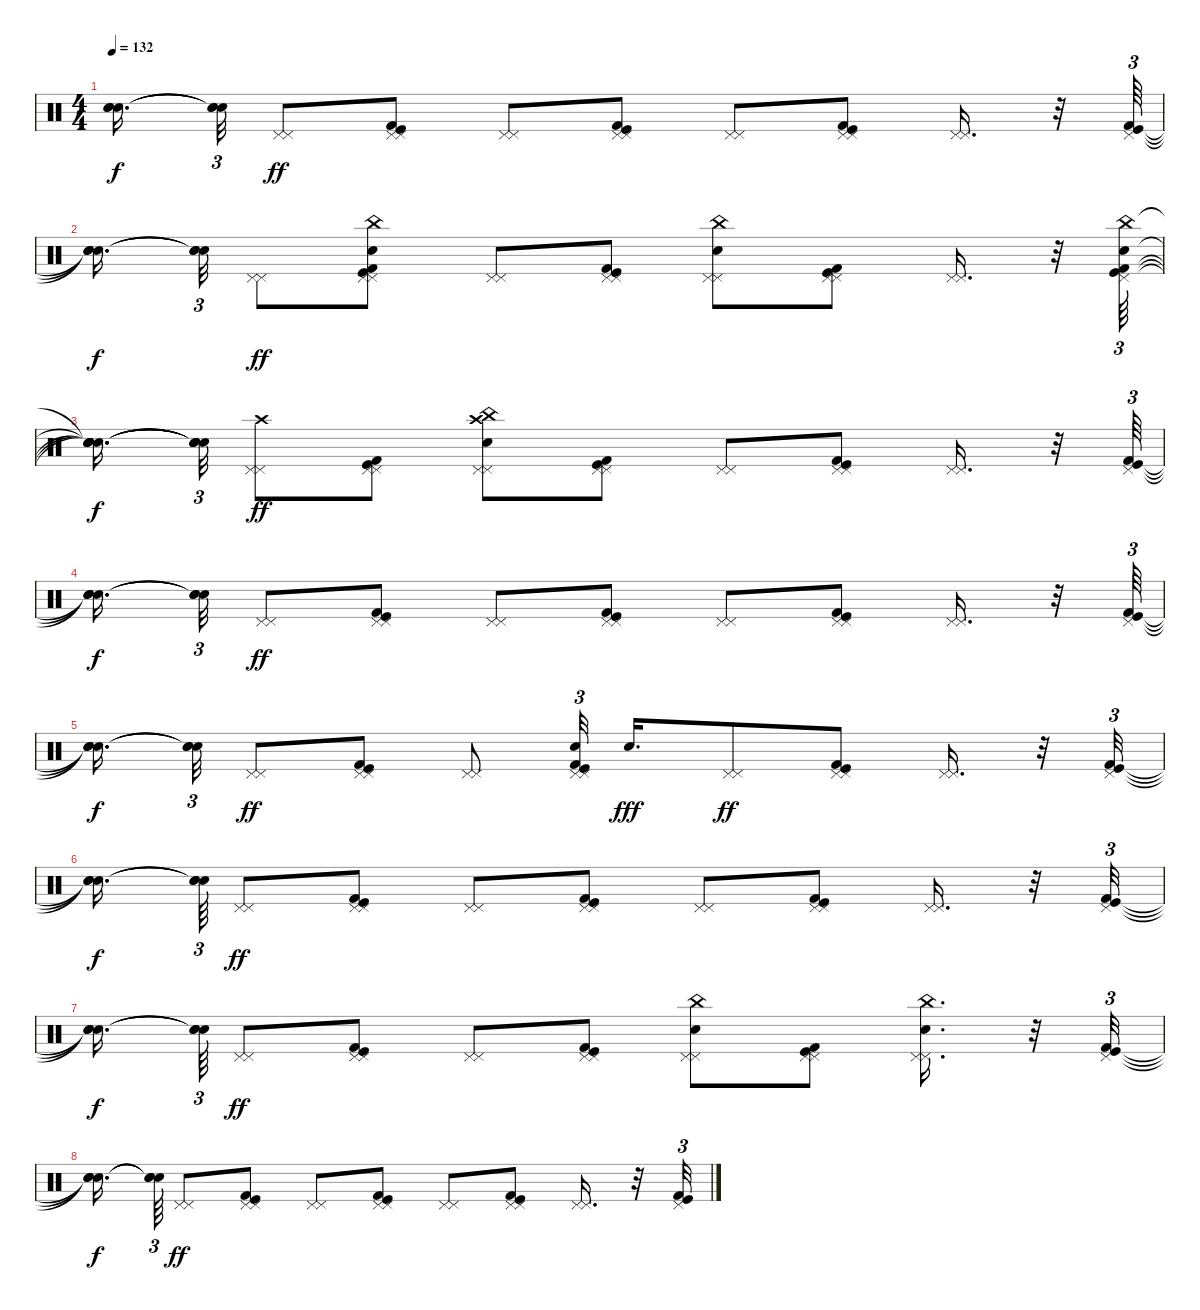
\track "" {instrument percussion}
\staff {score}
\articulation defaults
\ts (4 4)
\tempo 132
\clef neutral
\ks c
("Snare (hit)"{t} "Snare (hit)"{t} "Snare (hit)"{t}).16{d dy f beam splitsecondary} ("Snare (hit)"{t} "Snare (hit)"{t} "Snare (hit)"{t}).32{tu (3 2)} ("Pedal Hi-Hat (hit)" "Pedal Hi-Hat (hit)").8{dy ff} ("Kick (hit)" "Kick (hit) 2" "Pedal Hi-Hat (hit)" "Pedal Hi-Hat (hit)").8 ("Pedal Hi-Hat (hit)" "Pedal Hi-Hat (hit)").8 ("Kick (hit) 2" "Kick (hit)" "Pedal Hi-Hat (hit)" "Pedal Hi-Hat (hit)").8 ("Pedal Hi-Hat (hit)" "Pedal Hi-Hat (hit)").8 ("Kick (hit)" "Kick (hit) 2" "Pedal Hi-Hat (hit)" "Pedal Hi-Hat (hit)").8 ("Pedal Hi-Hat (hit)" "Pedal Hi-Hat (hit)").16{d} r.32 ("Kick (hit) 2" "Kick (hit)" "Pedal Hi-Hat (hit)").64{tu (3 2)} |
("Snare (hit)"{t} "Snare (hit)"{t} "Snare (hit)"{t}).16{d dy f beam splitsecondary} ("Snare (hit)"{t} "Snare (hit)"{t} "Snare (hit)"{t}).32{tu (3 2)} ("Pedal Hi-Hat (hit)" "Pedal Hi-Hat (hit)").8{dy ff} ("Kick (hit)" "Kick (hit) 2" "China (choke)" "Snare (hit)" "Pedal Hi-Hat (hit)" "Pedal Hi-Hat (hit)").8 ("Pedal Hi-Hat (hit)" "Pedal Hi-Hat (hit)").8 ("Kick (hit) 2" "Kick (hit)" "Pedal Hi-Hat (hit)" "Pedal Hi-Hat (hit)").8 ("China (choke)" "Snare (hit)" "Pedal Hi-Hat (hit)" "Pedal Hi-Hat (hit)").8 ("Kick (hit)" "Kick (hit) 2" "Pedal Hi-Hat (hit)" "Pedal Hi-Hat (hit)").8 ("Pedal Hi-Hat (hit)" "Pedal Hi-Hat (hit)").16{d} r.32 ("Kick (hit) 2" "Kick (hit)" "China (choke)" "Snare (hit)" "Pedal Hi-Hat (hit)").64{tu (3 2)} |
("Snare (hit)"{t} "Snare (hit)"{t} "Snare (hit)"{t} "Snare (hit)"{t} "Snare (hit)"{t}).16{d dy f beam splitsecondary} ("Snare (hit)"{t} "Snare (hit)"{t} "Snare (hit)"{t} "Snare (hit)"{t} "Snare (hit)"{t}).32{tu (3 2)} ("Crash high (hit)" "Pedal Hi-Hat (hit)" "Pedal Hi-Hat (hit)").8{dy ff} ("Kick (hit)" "Kick (hit) 2" "Pedal Hi-Hat (hit)" "Pedal Hi-Hat (hit)").8 ("Crash high (hit)" "China (choke)" "Snare (hit)" "Pedal Hi-Hat (hit)" "Pedal Hi-Hat (hit)").8 ("Kick (hit) 2" "Kick (hit)" "Pedal Hi-Hat (hit)" "Pedal Hi-Hat (hit)").8 ("Pedal Hi-Hat (hit)" "Pedal Hi-Hat (hit)").8 ("Kick (hit)" "Kick (hit) 2" "Pedal Hi-Hat (hit)" "Pedal Hi-Hat (hit)").8 ("Pedal Hi-Hat (hit)" "Pedal Hi-Hat (hit)").16{d} r.32 ("Kick (hit) 2" "Kick (hit)" "Pedal Hi-Hat (hit)").64{tu (3 2)} |
("Snare (hit)"{t} "Snare (hit)"{t} "Snare (hit)"{t}).16{d dy f beam splitsecondary} ("Snare (hit)"{t} "Snare (hit)"{t} "Snare (hit)"{t}).32{tu (3 2)} ("Pedal Hi-Hat (hit)" "Pedal Hi-Hat (hit)").8{dy ff} ("Kick (hit)" "Kick (hit) 2" "Pedal Hi-Hat (hit)" "Pedal Hi-Hat (hit)").8 ("Pedal Hi-Hat (hit)" "Pedal Hi-Hat (hit)").8 ("Kick (hit) 2" "Kick (hit)" "Pedal Hi-Hat (hit)" "Pedal Hi-Hat (hit)").8 ("Pedal Hi-Hat (hit)" "Pedal Hi-Hat (hit)").8 ("Kick (hit)" "Kick (hit) 2" "Pedal Hi-Hat (hit)" "Pedal Hi-Hat (hit)").8 ("Pedal Hi-Hat (hit)" "Pedal Hi-Hat (hit)").16{d} r.32 ("Kick (hit) 2" "Kick (hit)" "Pedal Hi-Hat (hit)").64{tu (3 2)} |
("Snare (hit)"{t} "Snare (hit)"{t} "Snare (hit)"{t}).16{d dy f beam splitsecondary} ("Snare (hit)"{t} "Snare (hit)"{t} "Snare (hit)"{t}).32{tu (3 2)} ("Pedal Hi-Hat (hit)" "Pedal Hi-Hat (hit)").8{dy ff} ("Kick (hit)" "Kick (hit) 2" "Pedal Hi-Hat (hit)" "Pedal Hi-Hat (hit)").8 ("Pedal Hi-Hat (hit)" "Pedal Hi-Hat (hit)").8 ("Kick (hit) 2" "Kick (hit)" "Snare (hit) 2" "Pedal Hi-Hat (hit)" "Pedal Hi-Hat (hit)").32{tu (3 2)} "Snare (hit) 2".16{d dy fff} ("Pedal Hi-Hat (hit)" "Pedal Hi-Hat (hit)").8{dy ff} ("Kick (hit)" "Kick (hit) 2" "Pedal Hi-Hat (hit)" "Pedal Hi-Hat (hit)").8 ("Pedal Hi-Hat (hit)" "Pedal Hi-Hat (hit)").16{d} r.32 ("Kick (hit) 2" "Kick (hit)" "Pedal Hi-Hat (hit)").32{tu (3 2)} |
("Snare (hit)"{t} "Snare (hit)"{t} "Snare (hit)"{t}).16{d dy f beam splitsecondary} ("Snare (hit)"{t} "Snare (hit)"{t} "Snare (hit)"{t}).64{tu (3 2)} ("Pedal Hi-Hat (hit)" "Pedal Hi-Hat (hit)").8{dy ff} ("Kick (hit)" "Kick (hit) 2" "Pedal Hi-Hat (hit)" "Pedal Hi-Hat (hit)").8 ("Pedal Hi-Hat (hit)" "Pedal Hi-Hat (hit)").8 ("Kick (hit) 2" "Kick (hit)" "Pedal Hi-Hat (hit)" "Pedal Hi-Hat (hit)").8 ("Pedal Hi-Hat (hit)" "Pedal Hi-Hat (hit)").8 ("Kick (hit)" "Kick (hit) 2" "Pedal Hi-Hat (hit)" "Pedal Hi-Hat (hit)").8 ("Pedal Hi-Hat (hit)" "Pedal Hi-Hat (hit)").16{d} r.32 ("Kick (hit) 2" "Kick (hit)" "Pedal Hi-Hat (hit)").32{tu (3 2)} |
("Snare (hit)"{t} "Snare (hit)"{t} "Snare (hit)"{t}).16{d dy f beam splitsecondary} ("Snare (hit)"{t} "Snare (hit)"{t} "Snare (hit)"{t}).64{tu (3 2)} ("Pedal Hi-Hat (hit)" "Pedal Hi-Hat (hit)").8{dy ff} ("Kick (hit)" "Kick (hit) 2" "Pedal Hi-Hat (hit)" "Pedal Hi-Hat (hit)").8 ("Pedal Hi-Hat (hit)" "Pedal Hi-Hat (hit)").8 ("Kick (hit) 2" "Kick (hit)" "Pedal Hi-Hat (hit)" "Pedal Hi-Hat (hit)").8 ("China (choke)" "Snare (hit)" "Pedal Hi-Hat (hit)" "Pedal Hi-Hat (hit)").8 ("Kick (hit)" "Kick (hit) 2" "Pedal Hi-Hat (hit)" "Pedal Hi-Hat (hit)").8 ("China (choke)" "Snare (hit)" "Pedal Hi-Hat (hit)" "Pedal Hi-Hat (hit)").16{d} r.32 ("Kick (hit) 2" "Kick (hit)" "Pedal Hi-Hat (hit)").32{tu (3 2)} |
("Snare (hit)"{t} "Snare (hit)"{t} "Snare (hit)"{t}).16{d dy f beam splitsecondary} ("Snare (hit)"{t} "Snare (hit)"{t} "Snare (hit)"{t}).64{tu (3 2)} ("Pedal Hi-Hat (hit)" "Pedal Hi-Hat (hit)").8{dy ff} ("Kick (hit)" "Kick (hit) 2" "Pedal Hi-Hat (hit)" "Pedal Hi-Hat (hit)").8 ("Pedal Hi-Hat (hit)" "Pedal Hi-Hat (hit)").8 ("Kick (hit) 2" "Kick (hit)" "Pedal Hi-Hat (hit)" "Pedal Hi-Hat (hit)").8 ("Pedal Hi-Hat (hit)" "Pedal Hi-Hat (hit)").8 ("Kick (hit)" "Kick (hit) 2" "Pedal Hi-Hat (hit)" "Pedal Hi-Hat (hit)").8 ("Pedal Hi-Hat (hit)" "Pedal Hi-Hat (hit)").16{d} r.32 ("Kick (hit) 2" "Kick (hit)" "Pedal Hi-Hat (hit)").32{tu (3 2)}
